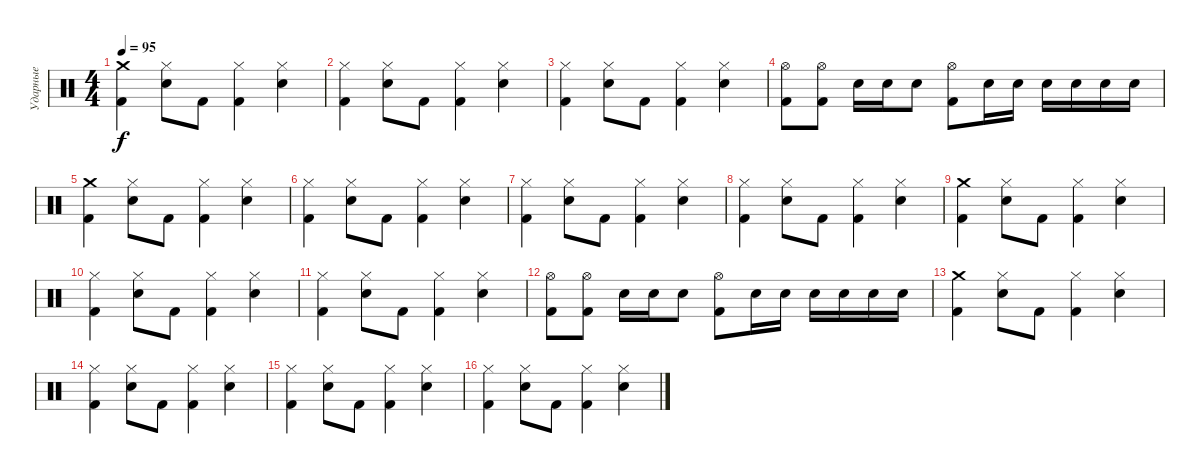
\track ("Ударные" "Ударные") {instrument percussion}
\staff {score}
\articulation defaults
\ts (4 4)
\tempo 95
\clef neutral
\ks c
("Crash medium (hit)" "Kick (hit) 2").4{dy f} ("Hi-Hat (closed)" "Snare (hit) 2").8 "Kick (hit) 2".8 ("Hi-Hat (closed)" "Kick (hit) 2").4 ("Hi-Hat (closed)" "Snare (hit) 2").4 |
("Hi-Hat (closed)" "Kick (hit) 2").4 ("Hi-Hat (closed)" "Snare (hit) 2").8 "Kick (hit) 2".8 ("Hi-Hat (closed)" "Kick (hit) 2").4 ("Hi-Hat (closed)" "Snare (hit) 2").4 |
("Hi-Hat (closed)" "Kick (hit) 2").4 ("Hi-Hat (closed)" "Snare (hit) 2").8 "Kick (hit) 2".8 ("Hi-Hat (closed)" "Kick (hit) 2").4 ("Hi-Hat (closed)" "Snare (hit) 2").4 |
("Hi-Hat (open)" "Kick (hit) 2").8 ("Hi-Hat (open)" "Kick (hit) 2").8 "Snare (hit) 2".16 "Snare (hit) 2".16 "Snare (hit) 2".8 ("Hi-Hat (open)" "Kick (hit) 2").8 "Snare (hit) 2".16 "Snare (hit) 2".16 "Snare (hit) 2".16 "Snare (hit) 2".16 "Snare (hit) 2".16 "Snare (hit) 2".16 |
("Crash medium (hit)" "Kick (hit) 2").4 ("Hi-Hat (closed)" "Snare (hit) 2").8 "Kick (hit) 2".8 ("Hi-Hat (closed)" "Kick (hit) 2").4 ("Hi-Hat (closed)" "Snare (hit) 2").4 |
("Hi-Hat (closed)" "Kick (hit) 2").4 ("Hi-Hat (closed)" "Snare (hit) 2").8 "Kick (hit) 2".8 ("Hi-Hat (closed)" "Kick (hit) 2").4 ("Hi-Hat (closed)" "Snare (hit) 2").4 |
("Hi-Hat (closed)" "Kick (hit) 2").4 ("Hi-Hat (closed)" "Snare (hit) 2").8 "Kick (hit) 2".8 ("Hi-Hat (closed)" "Kick (hit) 2").4 ("Hi-Hat (closed)" "Snare (hit) 2").4 |
("Hi-Hat (closed)" "Kick (hit) 2").4 ("Hi-Hat (closed)" "Snare (hit) 2").8 "Kick (hit) 2".8 ("Hi-Hat (closed)" "Kick (hit) 2").4 ("Hi-Hat (closed)" "Snare (hit) 2").4 |
("Crash medium (hit)" "Kick (hit) 2").4 ("Hi-Hat (closed)" "Snare (hit) 2").8 "Kick (hit) 2".8 ("Hi-Hat (closed)" "Kick (hit) 2").4 ("Hi-Hat (closed)" "Snare (hit) 2").4 |
("Hi-Hat (closed)" "Kick (hit) 2").4 ("Hi-Hat (closed)" "Snare (hit) 2").8 "Kick (hit) 2".8 ("Hi-Hat (closed)" "Kick (hit) 2").4 ("Hi-Hat (closed)" "Snare (hit) 2").4 |
("Hi-Hat (closed)" "Kick (hit) 2").4 ("Hi-Hat (closed)" "Snare (hit) 2").8 "Kick (hit) 2".8 ("Hi-Hat (closed)" "Kick (hit) 2").4 ("Hi-Hat (closed)" "Snare (hit) 2").4 |
("Hi-Hat (open)" "Kick (hit) 2").8 ("Hi-Hat (open)" "Kick (hit) 2").8 "Snare (hit) 2".16 "Snare (hit) 2".16 "Snare (hit) 2".8 ("Hi-Hat (open)" "Kick (hit) 2").8 "Snare (hit) 2".16 "Snare (hit) 2".16 "Snare (hit) 2".16 "Snare (hit) 2".16 "Snare (hit) 2".16 "Snare (hit) 2".16 |
("Crash medium (hit)" "Kick (hit) 2").4 ("Hi-Hat (closed)" "Snare (hit) 2").8 "Kick (hit) 2".8 ("Hi-Hat (closed)" "Kick (hit) 2").4 ("Hi-Hat (closed)" "Snare (hit) 2").4 |
("Hi-Hat (closed)" "Kick (hit) 2").4 ("Hi-Hat (closed)" "Snare (hit) 2").8 "Kick (hit) 2".8 ("Hi-Hat (closed)" "Kick (hit) 2").4 ("Hi-Hat (closed)" "Snare (hit) 2").4 |
("Hi-Hat (closed)" "Kick (hit) 2").4 ("Hi-Hat (closed)" "Snare (hit) 2").8 "Kick (hit) 2".8 ("Hi-Hat (closed)" "Kick (hit) 2").4 ("Hi-Hat (closed)" "Snare (hit) 2").4 |
("Hi-Hat (closed)" "Kick (hit) 2").4 ("Hi-Hat (closed)" "Snare (hit) 2").8 "Kick (hit) 2".8 ("Hi-Hat (closed)" "Kick (hit) 2").4 ("Hi-Hat (closed)" "Snare (hit) 2").4
